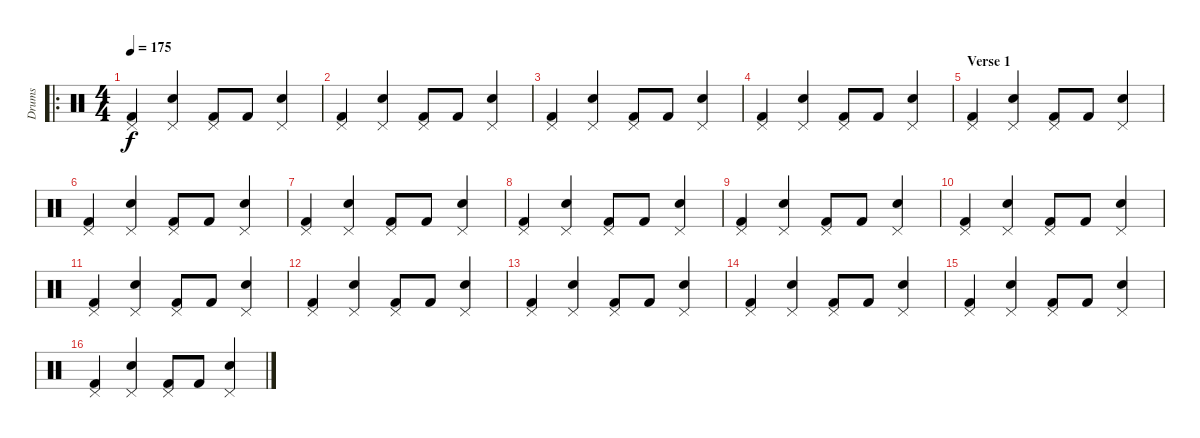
\track ("Drums" "Drums") {instrument percussion}
\staff {score}
\articulation defaults
\ro
\ts (4 4)
\tempo 175
\clef neutral
\ks c
("Pedal Hi-Hat (hit)" "Kick (hit) 2").4{dy f} ("Pedal Hi-Hat (hit)" "Electric Snare (hit)").4 ("Pedal Hi-Hat (hit)" "Kick (hit) 2").8 "Kick (hit) 2".8 ("Pedal Hi-Hat (hit)" "Electric Snare (hit)").4 |
("Pedal Hi-Hat (hit)" "Kick (hit) 2").4 ("Pedal Hi-Hat (hit)" "Electric Snare (hit)").4 ("Pedal Hi-Hat (hit)" "Kick (hit) 2").8 "Kick (hit) 2".8 ("Pedal Hi-Hat (hit)" "Electric Snare (hit)").4 |
("Pedal Hi-Hat (hit)" "Kick (hit) 2").4 ("Pedal Hi-Hat (hit)" "Electric Snare (hit)").4 ("Pedal Hi-Hat (hit)" "Kick (hit) 2").8 "Kick (hit) 2".8 ("Pedal Hi-Hat (hit)" "Electric Snare (hit)").4 |
("Pedal Hi-Hat (hit)" "Kick (hit) 2").4 ("Pedal Hi-Hat (hit)" "Electric Snare (hit)").4 ("Pedal Hi-Hat (hit)" "Kick (hit) 2").8 "Kick (hit) 2".8 ("Pedal Hi-Hat (hit)" "Electric Snare (hit)").4 |
\section ("" "Verse 1")
("Pedal Hi-Hat (hit)" "Kick (hit) 2").4 ("Pedal Hi-Hat (hit)" "Electric Snare (hit)").4 ("Pedal Hi-Hat (hit)" "Kick (hit) 2").8 "Kick (hit) 2".8 ("Pedal Hi-Hat (hit)" "Electric Snare (hit)").4 |
("Pedal Hi-Hat (hit)" "Kick (hit) 2").4 ("Pedal Hi-Hat (hit)" "Electric Snare (hit)").4 ("Pedal Hi-Hat (hit)" "Kick (hit) 2").8 "Kick (hit) 2".8 ("Pedal Hi-Hat (hit)" "Electric Snare (hit)").4 |
("Pedal Hi-Hat (hit)" "Kick (hit) 2").4 ("Pedal Hi-Hat (hit)" "Electric Snare (hit)").4 ("Pedal Hi-Hat (hit)" "Kick (hit) 2").8 "Kick (hit) 2".8 ("Pedal Hi-Hat (hit)" "Electric Snare (hit)").4 |
("Pedal Hi-Hat (hit)" "Kick (hit) 2").4 ("Pedal Hi-Hat (hit)" "Electric Snare (hit)").4 ("Pedal Hi-Hat (hit)" "Kick (hit) 2").8 "Kick (hit) 2".8 ("Pedal Hi-Hat (hit)" "Electric Snare (hit)").4 |
("Pedal Hi-Hat (hit)" "Kick (hit) 2").4 ("Pedal Hi-Hat (hit)" "Electric Snare (hit)").4 ("Pedal Hi-Hat (hit)" "Kick (hit) 2").8 "Kick (hit) 2".8 ("Pedal Hi-Hat (hit)" "Electric Snare (hit)").4 |
("Pedal Hi-Hat (hit)" "Kick (hit) 2").4 ("Pedal Hi-Hat (hit)" "Electric Snare (hit)").4 ("Pedal Hi-Hat (hit)" "Kick (hit) 2").8 "Kick (hit) 2".8 ("Pedal Hi-Hat (hit)" "Electric Snare (hit)").4 |
("Pedal Hi-Hat (hit)" "Kick (hit) 2").4 ("Pedal Hi-Hat (hit)" "Electric Snare (hit)").4 ("Pedal Hi-Hat (hit)" "Kick (hit) 2").8 "Kick (hit) 2".8 ("Pedal Hi-Hat (hit)" "Electric Snare (hit)").4 |
("Pedal Hi-Hat (hit)" "Kick (hit) 2").4 ("Pedal Hi-Hat (hit)" "Electric Snare (hit)").4 ("Pedal Hi-Hat (hit)" "Kick (hit) 2").8 "Kick (hit) 2".8 ("Pedal Hi-Hat (hit)" "Electric Snare (hit)").4 |
("Pedal Hi-Hat (hit)" "Kick (hit) 2").4 ("Pedal Hi-Hat (hit)" "Electric Snare (hit)").4 ("Pedal Hi-Hat (hit)" "Kick (hit) 2").8 "Kick (hit) 2".8 ("Pedal Hi-Hat (hit)" "Electric Snare (hit)").4 |
("Pedal Hi-Hat (hit)" "Kick (hit) 2").4 ("Pedal Hi-Hat (hit)" "Electric Snare (hit)").4 ("Pedal Hi-Hat (hit)" "Kick (hit) 2").8 "Kick (hit) 2".8 ("Pedal Hi-Hat (hit)" "Electric Snare (hit)").4 |
("Pedal Hi-Hat (hit)" "Kick (hit) 2").4 ("Pedal Hi-Hat (hit)" "Electric Snare (hit)").4 ("Pedal Hi-Hat (hit)" "Kick (hit) 2").8 "Kick (hit) 2".8 ("Pedal Hi-Hat (hit)" "Electric Snare (hit)").4 |
("Pedal Hi-Hat (hit)" "Kick (hit) 2").4 ("Pedal Hi-Hat (hit)" "Electric Snare (hit)").4 ("Pedal Hi-Hat (hit)" "Kick (hit) 2").8 "Kick (hit) 2".8 ("Pedal Hi-Hat (hit)" "Electric Snare (hit)").4
